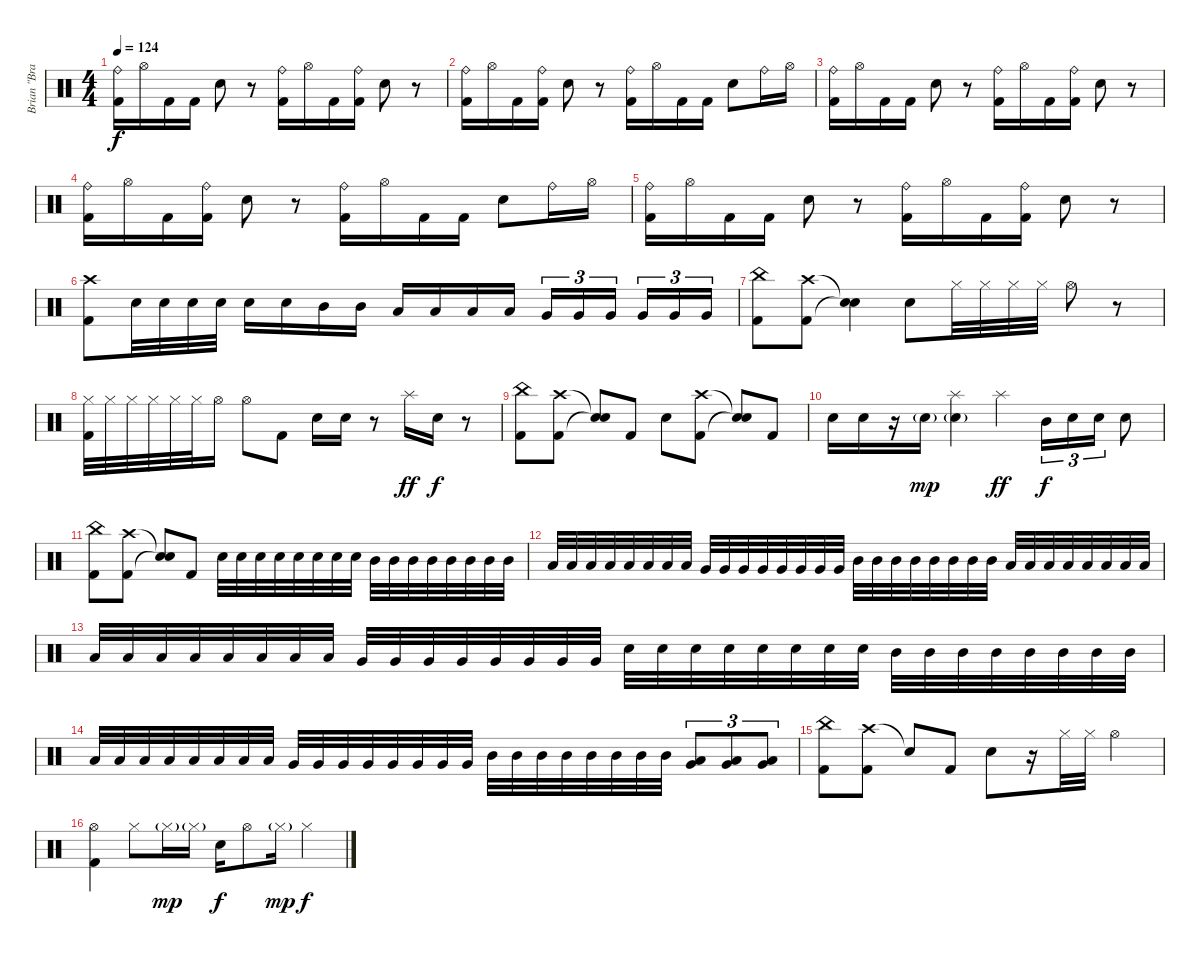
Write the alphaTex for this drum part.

\track ("Brian \"Brain\" Mantia / Drums" "Brian \"Bra") {instrument percussion}
\staff {score}
\articulation defaults
\ts (4 4)
\tempo 124
\clef neutral
\ks c
("Ride (bell)" "Kick (hit) 2").16{dy f} "Hi-Hat (open)".16 "Kick (hit) 2".16 "Kick (hit) 2".16 "Electric Snare (hit)".8 r.8 ("Ride (bell)" "Kick (hit) 2").16 "Hi-Hat (open)".16 "Kick (hit) 2".16 ("Ride (bell)" "Kick (hit) 2").16 "Electric Snare (hit)".8 r.8 |
("Ride (bell)" "Kick (hit) 2").16 "Hi-Hat (open)".16 "Kick (hit) 2".16 ("Ride (bell)" "Kick (hit) 2").16 "Electric Snare (hit)".8 r.8 ("Ride (bell)" "Kick (hit) 2").16 "Hi-Hat (open)".16 "Kick (hit) 2".16 "Kick (hit) 2".16 "Electric Snare (hit)".8 "Ride (bell)".16 "Hi-Hat (open)".16 |
("Ride (bell)" "Kick (hit) 2").16 "Hi-Hat (open)".16 "Kick (hit) 2".16 "Kick (hit) 2".16 "Electric Snare (hit)".8 r.8 ("Ride (bell)" "Kick (hit) 2").16 "Hi-Hat (open)".16 "Kick (hit) 2".16 ("Ride (bell)" "Kick (hit) 2").16 "Electric Snare (hit)".8 r.8 |
("Ride (bell)" "Kick (hit) 2").16 "Hi-Hat (open)".16 "Kick (hit) 2".16 ("Ride (bell)" "Kick (hit) 2").16 "Electric Snare (hit)".8 r.8 ("Ride (bell)" "Kick (hit) 2").16 "Hi-Hat (open)".16 "Kick (hit) 2".16 "Kick (hit) 2".16 "Electric Snare (hit)".8 "Ride (bell)".16 "Hi-Hat (open)".16 |
("Ride (bell)" "Kick (hit) 2").16 "Hi-Hat (open)".16 "Kick (hit) 2".16 "Kick (hit) 2".16 "Electric Snare (hit)".8 r.8 ("Ride (bell)" "Kick (hit) 2").16 "Hi-Hat (open)".16 "Kick (hit) 2".16 ("Ride (bell)" "Kick (hit) 2").16 "Electric Snare (hit)".8 r.8 |
("Crash high (hit)" "Kick (hit) 2").8 "Electric Snare (hit)".32 "Electric Snare (hit)".32 "Electric Snare (hit)".32 "Electric Snare (hit)".32 "Electric Snare (hit)".16 "Electric Snare (hit)".16 "Mid Tom (hit)".16 "Mid Tom (hit)".16 "Low Tom (hit)".16 "Low Tom (hit)".16 "Low Tom (hit)".16 "Low Tom (hit)".16 "Very Low Tom (hit)".16{tu (3 2)} "Very Low Tom (hit)".16{tu (3 2)} "Very Low Tom (hit)".16{tu (3 2)} "Very Low Tom (hit)".16{tu (3 2)} "Very Low Tom (hit)".16{tu (3 2)} "Very Low Tom (hit)".16{tu (3 2)} |
("China (hit)" "Kick (hit) 2").8 ("Crash high (hit)" "Kick (hit) 2").8 ("Snare (hit)"{t} "Snare (hit)"{t}).4 "Electric Snare (hit)".8 "Hi-Hat (closed)".32 "Hi-Hat (closed)".32 "Hi-Hat (closed)".32 "Hi-Hat (closed)".32 "Hi-Hat (open)".8 r.8 |
("Hi-Hat (closed)" "Kick (hit) 2").32 "Hi-Hat (closed)".32 "Hi-Hat (closed)".32 "Hi-Hat (closed)".32 "Hi-Hat (closed)".32 "Hi-Hat (closed)".32 "Hi-Hat (open)".16 "Hi-Hat (open)".8 "Kick (hit) 2".8 "Electric Snare (hit)".16 "Electric Snare (hit)".16 r.8 "Splash (hit)".16{dy ff} "Electric Snare (hit)".16{dy f} r.8 |
("China (hit)" "Kick (hit) 2").8 ("Crash high (hit)" "Kick (hit) 2").8 ("Snare (hit)"{t} "Snare (hit)"{t}).8 "Kick (hit) 2".8 "Electric Snare (hit)".8 ("Crash high (hit)" "Kick (hit) 2").8 ("Snare (hit)"{t} "Snare (hit)"{t}).8 "Kick (hit) 2".8 |
"Electric Snare (hit)".16 "Electric Snare (hit)".16 r.16 "Electric Snare (hit)"{g}.16{dy mp} ("Splash (hit)" "Electric Snare (hit)"{g}).4 "Splash (hit)".4{dy ff} "Mid Tom (hit)".16{tu (3 2) dy f} "Electric Snare (hit)".16{tu (3 2)} "Electric Snare (hit)".16{tu (3 2)} "Electric Snare (hit)".8 |
("China (hit)" "Kick (hit) 2").8 ("Crash high (hit)" "Kick (hit) 2").8 ("Snare (hit)"{t} "Snare (hit)"{t}).8 "Kick (hit) 2".8 "Electric Snare (hit)".32 "Electric Snare (hit)".32 "Electric Snare (hit)".32 "Electric Snare (hit)".32 "Electric Snare (hit)".32 "Electric Snare (hit)".32 "Electric Snare (hit)".32 "Electric Snare (hit)".32 "Mid Tom (hit)".32 "Mid Tom (hit)".32 "Mid Tom (hit)".32 "Mid Tom (hit)".32 "Mid Tom (hit)".32 "Mid Tom (hit)".32 "Mid Tom (hit)".32 "Mid Tom (hit)".32 |
"Low Tom (hit)".32 "Low Tom (hit)".32 "Low Tom (hit)".32 "Low Tom (hit)".32 "Low Tom (hit)".32 "Low Tom (hit)".32 "Low Tom (hit)".32 "Low Tom (hit)".32 "Very Low Tom (hit)".32 "Very Low Tom (hit)".32 "Very Low Tom (hit)".32 "Very Low Tom (hit)".32 "Very Low Tom (hit)".32 "Very Low Tom (hit)".32 "Very Low Tom (hit)".32 "Very Low Tom (hit)".32 "Mid Tom (hit)".32 "Mid Tom (hit)".32 "Mid Tom (hit)".32 "Mid Tom (hit)".32 "Mid Tom (hit)".32 "Mid Tom (hit)".32 "Mid Tom (hit)".32 "Mid Tom (hit)".32 "Low Tom (hit)".32 "Low Tom (hit)".32 "Low Tom (hit)".32 "Low Tom (hit)".32 "Low Tom (hit)".32 "Low Tom (hit)".32 "Low Tom (hit)".32 "Low Tom (hit)".32 |
"Low Tom (hit)".32 "Low Tom (hit)".32 "Low Tom (hit)".32 "Low Tom (hit)".32 "Low Tom (hit)".32 "Low Tom (hit)".32 "Low Tom (hit)".32 "Low Tom (hit)".32 "Very Low Tom (hit)".32 "Very Low Tom (hit)".32 "Very Low Tom (hit)".32 "Very Low Tom (hit)".32 "Very Low Tom (hit)".32 "Very Low Tom (hit)".32 "Very Low Tom (hit)".32 "Very Low Tom (hit)".32 "Electric Snare (hit)".32 "Electric Snare (hit)".32 "Electric Snare (hit)".32 "Electric Snare (hit)".32 "Electric Snare (hit)".32 "Electric Snare (hit)".32 "Electric Snare (hit)".32 "Electric Snare (hit)".32 "Mid Tom (hit)".32 "Mid Tom (hit)".32 "Mid Tom (hit)".32 "Mid Tom (hit)".32 "Mid Tom (hit)".32 "Mid Tom (hit)".32 "Mid Tom (hit)".32 "Mid Tom (hit)".32 |
"Low Tom (hit)".32 "Low Tom (hit)".32 "Low Tom (hit)".32 "Low Tom (hit)".32 "Low Tom (hit)".32 "Low Tom (hit)".32 "Low Tom (hit)".32 "Low Tom (hit)".32 "Very Low Tom (hit)".32 "Very Low Tom (hit)".32 "Very Low Tom (hit)".32 "Very Low Tom (hit)".32 "Very Low Tom (hit)".32 "Very Low Tom (hit)".32 "Very Low Tom (hit)".32 "Very Low Tom (hit)".32 "Mid Tom (hit)".32 "Mid Tom (hit)".32 "Mid Tom (hit)".32 "Mid Tom (hit)".32 "Mid Tom (hit)".32 "Mid Tom (hit)".32 "Mid Tom (hit)".32 "Mid Tom (hit)".32 ("Low Tom (hit)" "Very Low Tom (hit)").8{tu (3 2)} ("Low Tom (hit)" "Very Low Tom (hit)").8{tu (3 2)} ("Low Tom (hit)" "Very Low Tom (hit)").8{tu (3 2)} |
("China (hit)" "Kick (hit) 2").8 ("Crash high (hit)" "Kick (hit) 2").8 "Snare (hit)"{t}.8 "Kick (hit) 2".8 "Electric Snare (hit)".8 r.16 "Hi-Hat (closed)".32 "Hi-Hat (closed)".32 "Hi-Hat (open)".4 |
("Hi-Hat (open)" "Kick (hit) 2").4 "Hi-Hat (closed)".8 "Hi-Hat (closed)"{g}.16{dy mp} "Hi-Hat (closed)"{g}.16 "Electric Snare (hit)".16{dy f} "Hi-Hat (open)".8 "Hi-Hat (closed)"{g}.16{dy mp} "Hi-Hat (closed)".4{dy f}
